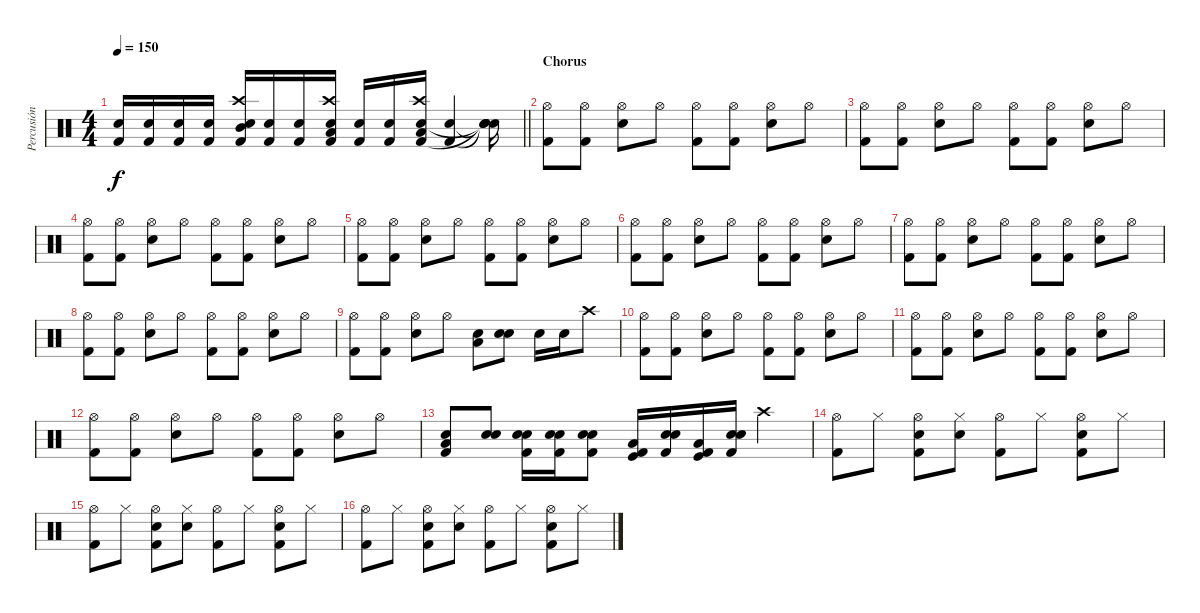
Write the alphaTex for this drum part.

\track ("Percusión" "Percusión") {instrument percussion}
\staff {score}
\articulation defaults
\ts (4 4)
\tempo 150
\clef neutral
\barLineRight lightlight
\ks c
("Electric Snare (hit)" "Kick (hit) 2").16{dy f} ("Electric Snare (hit)" "Kick (hit) 2").16 ("Electric Snare (hit)" "Kick (hit) 2").16 ("Electric Snare (hit)" "Kick (hit) 2").16 ("Crash high (hit)" "Mid Tom (hit)" "Electric Snare (hit)" "Kick (hit) 2").16 ("Electric Snare (hit)" "Kick (hit) 2").16 ("Electric Snare (hit)" "Kick (hit) 2").16 ("Crash high (hit)" "Low Tom (hit)" "Electric Snare (hit)" "Kick (hit) 2").16 ("Electric Snare (hit)" "Kick (hit) 2").16 ("Electric Snare (hit)" "Kick (hit) 2").16 ("Crash high (hit)" "Low Floor Tom (hit)" "Electric Snare (hit)" "Kick (hit) 2").16 ("Electric Snare (hit)" "Kick (hit) 2").4 ("Snare (hit)"{t} "Snare (hit)"{t} "Snare (hit)"{t} "Snare (hit)"{t}).16 |
\section ("" "Chorus")
("Hi-Hat (open)" "Kick (hit) 2").8 ("Hi-Hat (open)" "Kick (hit) 2").8 ("Hi-Hat (open)" "Snare (hit) 2").8 "Hi-Hat (open)".8 ("Hi-Hat (open)" "Kick (hit) 2").8 ("Hi-Hat (open)" "Kick (hit) 2").8 ("Hi-Hat (open)" "Snare (hit) 2").8 "Hi-Hat (open)".8 |
("Hi-Hat (open)" "Kick (hit) 2").8 ("Hi-Hat (open)" "Kick (hit) 2").8 ("Hi-Hat (open)" "Snare (hit) 2").8 "Hi-Hat (open)".8 ("Hi-Hat (open)" "Kick (hit) 2").8 ("Hi-Hat (open)" "Kick (hit) 2").8 ("Hi-Hat (open)" "Snare (hit) 2").8 "Hi-Hat (open)".8 |
("Hi-Hat (open)" "Kick (hit) 2").8 ("Hi-Hat (open)" "Kick (hit) 2").8 ("Hi-Hat (open)" "Snare (hit) 2").8 "Hi-Hat (open)".8 ("Hi-Hat (open)" "Kick (hit) 2").8 ("Hi-Hat (open)" "Kick (hit) 2").8 ("Hi-Hat (open)" "Snare (hit) 2").8 "Hi-Hat (open)".8 |
("Hi-Hat (open)" "Kick (hit) 2").8 ("Hi-Hat (open)" "Kick (hit) 2").8 ("Hi-Hat (open)" "Snare (hit) 2").8 "Hi-Hat (open)".8 ("Hi-Hat (open)" "Kick (hit) 2").8 ("Hi-Hat (open)" "Kick (hit) 2").8 ("Hi-Hat (open)" "Snare (hit) 2").8 "Hi-Hat (open)".8 |
("Hi-Hat (open)" "Kick (hit) 2").8 ("Hi-Hat (open)" "Kick (hit) 2").8 ("Hi-Hat (open)" "Snare (hit) 2").8 "Hi-Hat (open)".8 ("Hi-Hat (open)" "Kick (hit) 2").8 ("Hi-Hat (open)" "Kick (hit) 2").8 ("Hi-Hat (open)" "Snare (hit) 2").8 "Hi-Hat (open)".8 |
("Hi-Hat (open)" "Kick (hit) 2").8 ("Hi-Hat (open)" "Kick (hit) 2").8 ("Hi-Hat (open)" "Snare (hit) 2").8 "Hi-Hat (open)".8 ("Hi-Hat (open)" "Kick (hit) 2").8 ("Hi-Hat (open)" "Kick (hit) 2").8 ("Hi-Hat (open)" "Snare (hit) 2").8 "Hi-Hat (open)".8 |
("Hi-Hat (open)" "Kick (hit) 2").8 ("Hi-Hat (open)" "Kick (hit) 2").8 ("Hi-Hat (open)" "Snare (hit) 2").8 "Hi-Hat (open)".8 ("Hi-Hat (open)" "Kick (hit) 2").8 ("Hi-Hat (open)" "Kick (hit) 2").8 ("Hi-Hat (open)" "Snare (hit) 2").8 "Hi-Hat (open)".8 |
("Hi-Hat (open)" "Kick (hit) 2").8 ("Hi-Hat (open)" "Kick (hit) 2").8 ("Hi-Hat (open)" "Snare (hit) 2").8 "Hi-Hat (open)".8 ("Snare (hit) 2" "Low Floor Tom (hit)").8 ("Electric Snare (hit)" "Snare (hit) 2").8 "Electric Snare (hit)".16 "Electric Snare (hit)".16 "Crash high (hit)".8 |
("Hi-Hat (open)" "Kick (hit) 2").8 ("Hi-Hat (open)" "Kick (hit) 2").8 ("Hi-Hat (open)" "Snare (hit) 2").8 "Hi-Hat (open)".8 ("Hi-Hat (open)" "Kick (hit) 2").8 ("Hi-Hat (open)" "Kick (hit) 2").8 ("Hi-Hat (open)" "Snare (hit) 2").8 "Hi-Hat (open)".8 |
("Hi-Hat (open)" "Kick (hit) 2").8 ("Hi-Hat (open)" "Kick (hit) 2").8 ("Hi-Hat (open)" "Snare (hit) 2").8 "Hi-Hat (open)".8 ("Hi-Hat (open)" "Kick (hit) 2").8 ("Hi-Hat (open)" "Kick (hit) 2").8 ("Hi-Hat (open)" "Snare (hit) 2").8 "Hi-Hat (open)".8 |
("Hi-Hat (open)" "Kick (hit) 2").8 ("Hi-Hat (open)" "Kick (hit) 2").8 ("Hi-Hat (open)" "Snare (hit) 2").8 "Hi-Hat (open)".8 ("Hi-Hat (open)" "Kick (hit) 2").8 ("Hi-Hat (open)" "Kick (hit) 2").8 ("Hi-Hat (open)" "Snare (hit) 2").8 "Hi-Hat (open)".8 |
("Snare (hit) 2" "Low Floor Tom (hit)" "Kick (hit) 2").8 ("Electric Snare (hit)" "Snare (hit) 2").8 ("Electric Snare (hit)" "Snare (hit) 2" "Kick (hit) 2").16 ("Electric Snare (hit)" "Snare (hit) 2" "Kick (hit) 2").16 ("Electric Snare (hit)" "Snare (hit) 2" "Kick (hit) 2").8 ("Low Floor Tom (hit)" "Kick (hit)" "Kick (hit) 2").16 ("Electric Snare (hit)" "Snare (hit) 2" "Kick (hit) 2").16 ("Low Floor Tom (hit)" "Kick (hit)" "Kick (hit) 2").16 ("Electric Snare (hit)" "Snare (hit) 2" "Kick (hit) 2").16 "Crash high (hit)".4 |
("Hi-Hat (open)" "Kick (hit) 2").8 "Hi-Hat (closed)".8 ("Hi-Hat (open)" "Hand Clap (hit)" "Kick (hit) 2").8 ("Hi-Hat (closed)" "Hand Clap (hit)").8 ("Hi-Hat (open)" "Kick (hit) 2").8 "Hi-Hat (closed)".8 ("Hi-Hat (open)" "Hand Clap (hit)" "Kick (hit) 2").8 "Hi-Hat (closed)".8 |
("Hi-Hat (open)" "Kick (hit) 2").8 "Hi-Hat (closed)".8 ("Hi-Hat (open)" "Hand Clap (hit)" "Kick (hit) 2").8 ("Hi-Hat (closed)" "Hand Clap (hit)").8 ("Hi-Hat (open)" "Kick (hit) 2").8 "Hi-Hat (closed)".8 ("Hi-Hat (open)" "Hand Clap (hit)" "Kick (hit) 2").8 "Hi-Hat (closed)".8 |
("Hi-Hat (open)" "Kick (hit) 2").8 "Hi-Hat (closed)".8 ("Hi-Hat (open)" "Hand Clap (hit)" "Kick (hit) 2").8 ("Hi-Hat (closed)" "Hand Clap (hit)").8 ("Hi-Hat (open)" "Kick (hit) 2").8 "Hi-Hat (closed)".8 ("Hi-Hat (open)" "Hand Clap (hit)" "Kick (hit) 2").8 "Hi-Hat (closed)".8
